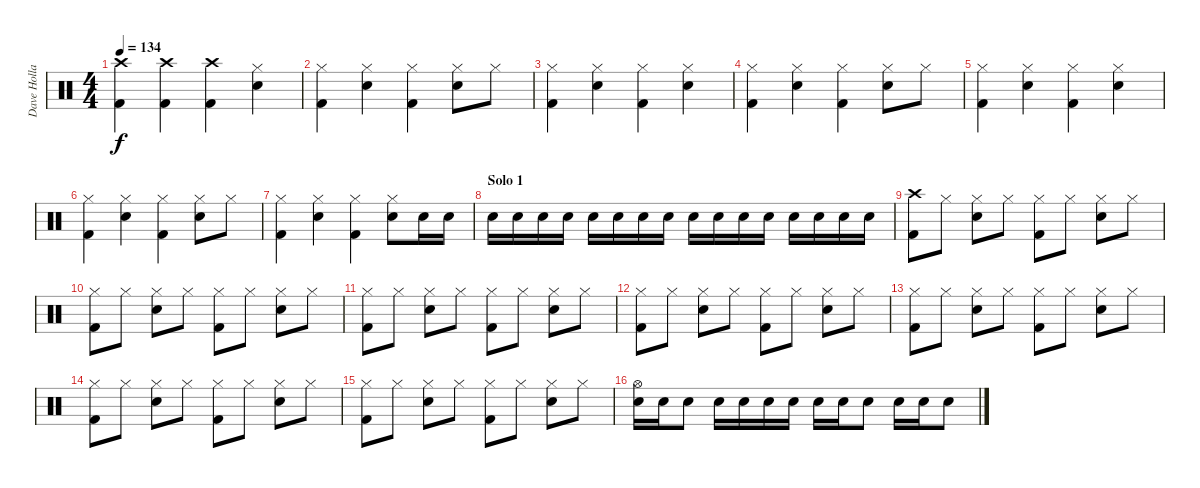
\track ("Dave Holland" "Dave Holla") {instrument percussion}
\staff {score}
\articulation defaults
\ts (4 4)
\tempo 134
\clef neutral
\ks c
("Crash high (hit)" "Kick (hit) 2").4{dy f} ("Crash high (hit)" "Kick (hit) 2").4 ("Crash high (hit)" "Kick (hit) 2").4 ("Hi-Hat (closed)" "Snare (hit) 2").4 |
("Hi-Hat (closed)" "Kick (hit) 2").4 ("Hi-Hat (closed)" "Snare (hit) 2").4 ("Hi-Hat (closed)" "Kick (hit) 2").4 ("Hi-Hat (closed)" "Snare (hit) 2").8 "Hi-Hat (closed)".8 |
("Hi-Hat (closed)" "Kick (hit) 2").4 ("Hi-Hat (closed)" "Snare (hit) 2").4 ("Hi-Hat (closed)" "Kick (hit) 2").4 ("Hi-Hat (closed)" "Snare (hit) 2").4 |
("Hi-Hat (closed)" "Kick (hit) 2").4 ("Hi-Hat (closed)" "Snare (hit) 2").4 ("Hi-Hat (closed)" "Kick (hit) 2").4 ("Hi-Hat (closed)" "Snare (hit) 2").8 "Hi-Hat (closed)".8 |
("Hi-Hat (closed)" "Kick (hit) 2").4 ("Hi-Hat (closed)" "Snare (hit) 2").4 ("Hi-Hat (closed)" "Kick (hit) 2").4 ("Hi-Hat (closed)" "Snare (hit) 2").4 |
("Hi-Hat (closed)" "Kick (hit) 2").4 ("Hi-Hat (closed)" "Snare (hit) 2").4 ("Hi-Hat (closed)" "Kick (hit) 2").4 ("Hi-Hat (closed)" "Snare (hit) 2").8 "Hi-Hat (closed)".8 |
("Hi-Hat (closed)" "Kick (hit) 2").4 ("Hi-Hat (closed)" "Snare (hit) 2").4 ("Hi-Hat (closed)" "Kick (hit) 2").4 ("Hi-Hat (closed)" "Snare (hit) 2").8 "Snare (hit) 2".16 "Snare (hit) 2".16 |
\section ("" "Solo 1")
"Snare (hit) 2".16 "Snare (hit) 2".16 "Snare (hit) 2".16 "Snare (hit) 2".16 "Snare (hit) 2".16 "Snare (hit) 2".16 "Snare (hit) 2".16 "Snare (hit) 2".16 "Snare (hit) 2".16 "Snare (hit) 2".16 "Snare (hit) 2".16 "Snare (hit) 2".16 "Snare (hit) 2".16 "Snare (hit) 2".16 "Snare (hit) 2".16 "Snare (hit) 2".16 |
("Crash high (hit)" "Kick (hit) 2").8 "Hi-Hat (closed)".8 ("Hi-Hat (closed)" "Snare (hit) 2").8 "Hi-Hat (closed)".8 ("Hi-Hat (closed)" "Kick (hit) 2").8 "Hi-Hat (closed)".8 ("Hi-Hat (closed)" "Snare (hit) 2").8 "Hi-Hat (closed)".8 |
("Hi-Hat (closed)" "Kick (hit) 2").8 "Hi-Hat (closed)".8 ("Hi-Hat (closed)" "Snare (hit) 2").8 "Hi-Hat (closed)".8 ("Hi-Hat (closed)" "Kick (hit) 2").8 "Hi-Hat (closed)".8 ("Hi-Hat (closed)" "Snare (hit) 2").8 "Hi-Hat (closed)".8 |
("Hi-Hat (closed)" "Kick (hit) 2").8 "Hi-Hat (closed)".8 ("Hi-Hat (closed)" "Snare (hit) 2").8 "Hi-Hat (closed)".8 ("Hi-Hat (closed)" "Kick (hit) 2").8 "Hi-Hat (closed)".8 ("Hi-Hat (closed)" "Snare (hit) 2").8 "Hi-Hat (closed)".8 |
("Hi-Hat (closed)" "Kick (hit) 2").8 "Hi-Hat (closed)".8 ("Hi-Hat (closed)" "Snare (hit) 2").8 "Hi-Hat (closed)".8 ("Hi-Hat (closed)" "Kick (hit) 2").8 "Hi-Hat (closed)".8 ("Hi-Hat (closed)" "Snare (hit) 2").8 "Hi-Hat (closed)".8 |
("Hi-Hat (closed)" "Kick (hit) 2").8 "Hi-Hat (closed)".8 ("Hi-Hat (closed)" "Snare (hit) 2").8 "Hi-Hat (closed)".8 ("Hi-Hat (closed)" "Kick (hit) 2").8 "Hi-Hat (closed)".8 ("Hi-Hat (closed)" "Snare (hit) 2").8 "Hi-Hat (closed)".8 |
("Hi-Hat (closed)" "Kick (hit) 2").8 "Hi-Hat (closed)".8 ("Hi-Hat (closed)" "Snare (hit) 2").8 "Hi-Hat (closed)".8 ("Hi-Hat (closed)" "Kick (hit) 2").8 "Hi-Hat (closed)".8 ("Hi-Hat (closed)" "Snare (hit) 2").8 "Hi-Hat (closed)".8 |
("Hi-Hat (closed)" "Kick (hit) 2").8 "Hi-Hat (closed)".8 ("Hi-Hat (closed)" "Snare (hit) 2").8 "Hi-Hat (closed)".8 ("Hi-Hat (closed)" "Kick (hit) 2").8 "Hi-Hat (closed)".8 ("Hi-Hat (closed)" "Snare (hit) 2").8 "Hi-Hat (closed)".8 |
("Hi-Hat (open)" "Snare (hit) 2").16 "Snare (hit) 2".16 "Snare (hit) 2".8 "Snare (hit) 2".16 "Snare (hit) 2".16 "Snare (hit) 2".16 "Snare (hit) 2".16 "Snare (hit) 2".16 "Snare (hit) 2".16 "Snare (hit) 2".8 "Snare (hit) 2".16 "Snare (hit) 2".16 "Snare (hit) 2".8
